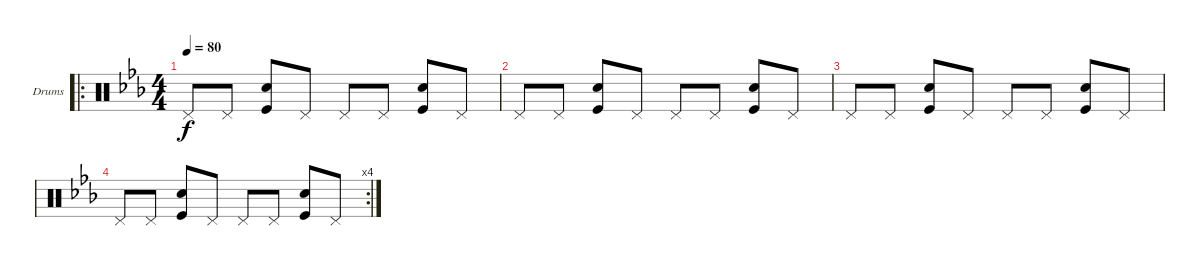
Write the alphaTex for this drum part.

\defaultSystemsLayout 4
\bracketExtendMode groupsimilarinstruments
\firstSystemTrackNameOrientation horizontal
\otherSystemsTrackNameOrientation horizontal
\track ("Drumkit" "Drums") {instrument percussion}
\staff {score}
\articulation defaults
\ro
\ts (4 4)
\tempo 80
\clef neutral
\ks eb "Pedal Hi-Hat (hit)".8{dy f} "Pedal Hi-Hat (hit)".8
("Snare (hit) 2" "Kick (hit)").8 "Pedal Hi-Hat (hit)".8 "Pedal Hi-Hat (hit)".8 "Pedal Hi-Hat (hit)".8 ("Snare (hit) 2" "Kick (hit)").8 "Pedal Hi-Hat (hit)".8 |
"Pedal Hi-Hat (hit)".8 "Pedal Hi-Hat (hit)".8 ("Snare (hit) 2" "Kick (hit)").8 "Pedal Hi-Hat (hit)".8 "Pedal Hi-Hat (hit)".8 "Pedal Hi-Hat (hit)".8 ("Snare (hit) 2" "Kick (hit)").8 "Pedal Hi-Hat (hit)".8 |
"Pedal Hi-Hat (hit)".8 "Pedal Hi-Hat (hit)".8 ("Snare (hit) 2" "Kick (hit)").8 "Pedal Hi-Hat (hit)".8 "Pedal Hi-Hat (hit)".8 "Pedal Hi-Hat (hit)".8 ("Snare (hit) 2" "Kick (hit)").8 "Pedal Hi-Hat (hit)".8 |
\rc 4 "Pedal Hi-Hat (hit)".8 "Pedal Hi-Hat (hit)".8
("Snare (hit) 2" "Kick (hit)").8 "Pedal Hi-Hat (hit)".8 "Pedal Hi-Hat (hit)".8 "Pedal Hi-Hat (hit)".8 ("Snare (hit) 2" "Kick (hit)").8 "Pedal Hi-Hat (hit)".8
